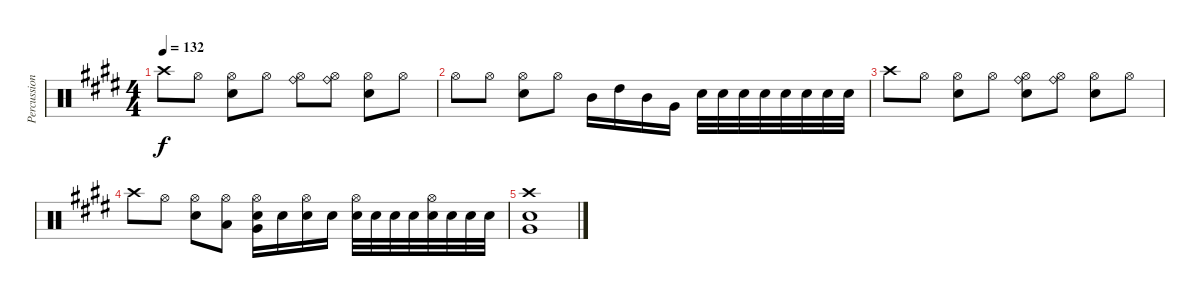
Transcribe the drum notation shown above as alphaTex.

\track ("Percussion (Gelnn Porter)" "Percussion") {instrument percussion}
\staff {score}
\articulation defaults
\ts (4 4)
\tempo 132
\clef neutral
\ks e "Crash high (hit)".8{dy f} "Hi-Hat (open)".8
("Hi-Hat (open)" "Snare (hit) 2").8 "Hi-Hat (open)".8 ("Hi-Hat (open)" "Ride (bell)").8 ("Hi-Hat (open)" "Ride (bell)").8 ("Hi-Hat (open)" "Snare (hit) 2").8 "Hi-Hat (open)".8 |
"Hi-Hat (open)".8 "Hi-Hat (open)".8 ("Hi-Hat (open)" "Snare (hit) 2").8 "Hi-Hat (open)".8 "Mid Tom (hit)".16 "High Tom (hit)".16 "Mid Tom (hit)".16 "Very Low Tom (hit)".16 "Snare (hit) 2".32 "Snare (hit) 2".32 "Snare (hit) 2".32 "Snare (hit) 2".32 "Snare (hit) 2".32 "Snare (hit) 2".32 "Snare (hit) 2".32 "Snare (hit) 2".32 |
"Crash high (hit)".8 "Hi-Hat (open)".8 ("Hi-Hat (open)" "Snare (hit) 2").8 "Hi-Hat (open)".8 ("Hi-Hat (open)" "Ride (bell)" "Snare (hit) 2").8 ("Hi-Hat (open)" "Ride (bell)").8 ("Hi-Hat (open)" "Snare (hit) 2").8 "Hi-Hat (open)".8 |
"Crash high (hit)".8 "Hi-Hat (open)".8 ("Hi-Hat (open)" "Snare (hit) 2").8 ("Hi-Hat (open)" "Low Tom (hit)").8 ("Hi-Hat (open)" "Snare (hit) 2" "Very Low Tom (hit)").16 "Snare (hit) 2".16 ("Hi-Hat (open)" "Snare (hit) 2").16 "Snare (hit) 2".16 ("Hi-Hat (open)" "Snare (hit) 2").32 "Snare (hit) 2".32 "Snare (hit) 2".32 "Snare (hit) 2".32 ("Hi-Hat (open)" "Snare (hit) 2").32 "Snare (hit) 2".32 "Snare (hit) 2".32 "Snare (hit) 2".32 |
("Crash high (hit)" "Snare (hit) 2" "Very Low Tom (hit)").1
